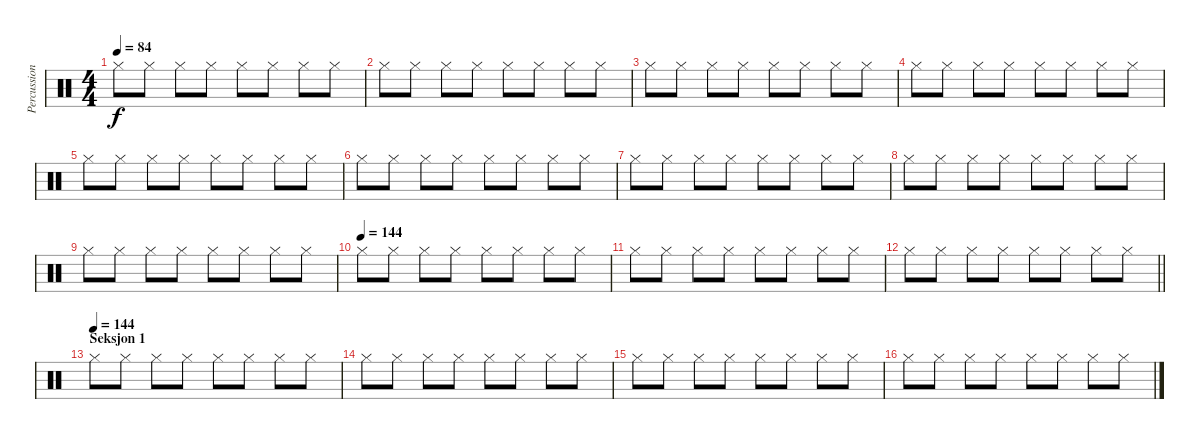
\track ("Percussion" "Percussion") {instrument percussion}
\staff {score}
\articulation defaults
\ts (4 4)
\tempo 84
\clef neutral
\ks c "Hi-Hat (closed)".8{dy f} "Hi-Hat (closed)".8 "Hi-Hat (closed)".8 "Hi-Hat (closed)".8 "Hi-Hat (closed)".8 "Hi-Hat (closed)".8 "Hi-Hat (closed)".8 "Hi-Hat (closed)".8
|
"Hi-Hat (closed)".8 "Hi-Hat (closed)".8 "Hi-Hat (closed)".8 "Hi-Hat (closed)".8 "Hi-Hat (closed)".8 "Hi-Hat (closed)".8 "Hi-Hat (closed)".8 "Hi-Hat (closed)".8 |
"Hi-Hat (closed)".8 "Hi-Hat (closed)".8 "Hi-Hat (closed)".8 "Hi-Hat (closed)".8 "Hi-Hat (closed)".8 "Hi-Hat (closed)".8 "Hi-Hat (closed)".8 "Hi-Hat (closed)".8 |
"Hi-Hat (closed)".8 "Hi-Hat (closed)".8 "Hi-Hat (closed)".8 "Hi-Hat (closed)".8 "Hi-Hat (closed)".8 "Hi-Hat (closed)".8 "Hi-Hat (closed)".8 "Hi-Hat (closed)".8 |
"Hi-Hat (closed)".8 "Hi-Hat (closed)".8 "Hi-Hat (closed)".8 "Hi-Hat (closed)".8 "Hi-Hat (closed)".8 "Hi-Hat (closed)".8 "Hi-Hat (closed)".8 "Hi-Hat (closed)".8 |
"Hi-Hat (closed)".8 "Hi-Hat (closed)".8 "Hi-Hat (closed)".8 "Hi-Hat (closed)".8 "Hi-Hat (closed)".8 "Hi-Hat (closed)".8 "Hi-Hat (closed)".8 "Hi-Hat (closed)".8 |
"Hi-Hat (closed)".8 "Hi-Hat (closed)".8 "Hi-Hat (closed)".8 "Hi-Hat (closed)".8 "Hi-Hat (closed)".8 "Hi-Hat (closed)".8 "Hi-Hat (closed)".8 "Hi-Hat (closed)".8 |
"Hi-Hat (closed)".8 "Hi-Hat (closed)".8 "Hi-Hat (closed)".8 "Hi-Hat (closed)".8 "Hi-Hat (closed)".8 "Hi-Hat (closed)".8 "Hi-Hat (closed)".8 "Hi-Hat (closed)".8 |
"Hi-Hat (closed)".8 "Hi-Hat (closed)".8 "Hi-Hat (closed)".8 "Hi-Hat (closed)".8 "Hi-Hat (closed)".8 "Hi-Hat (closed)".8 "Hi-Hat (closed)".8 "Hi-Hat (closed)".8 |
\tempo (144)
"Hi-Hat (closed)".8 "Hi-Hat (closed)".8 "Hi-Hat (closed)".8 "Hi-Hat (closed)".8 "Hi-Hat (closed)".8 "Hi-Hat (closed)".8 "Hi-Hat (closed)".8 "Hi-Hat (closed)".8 |
"Hi-Hat (closed)".8 "Hi-Hat (closed)".8 "Hi-Hat (closed)".8 "Hi-Hat (closed)".8 "Hi-Hat (closed)".8 "Hi-Hat (closed)".8 "Hi-Hat (closed)".8 "Hi-Hat (closed)".8 |
\barLineRight lightlight "Hi-Hat (closed)".8 "Hi-Hat (closed)".8 "Hi-Hat (closed)".8 "Hi-Hat (closed)".8 "Hi-Hat (closed)".8 "Hi-Hat (closed)".8 "Hi-Hat (closed)".8 "Hi-Hat (closed)".8
|
\section ("" "Seksjon 1")
\tempo (144)
"Hi-Hat (closed)".8 "Hi-Hat (closed)".8 "Hi-Hat (closed)".8 "Hi-Hat (closed)".8 "Hi-Hat (closed)".8 "Hi-Hat (closed)".8 "Hi-Hat (closed)".8 "Hi-Hat (closed)".8 |
"Hi-Hat (closed)".8 "Hi-Hat (closed)".8 "Hi-Hat (closed)".8 "Hi-Hat (closed)".8 "Hi-Hat (closed)".8 "Hi-Hat (closed)".8 "Hi-Hat (closed)".8 "Hi-Hat (closed)".8 |
"Hi-Hat (closed)".8 "Hi-Hat (closed)".8 "Hi-Hat (closed)".8 "Hi-Hat (closed)".8 "Hi-Hat (closed)".8 "Hi-Hat (closed)".8 "Hi-Hat (closed)".8 "Hi-Hat (closed)".8 |
"Hi-Hat (closed)".8 "Hi-Hat (closed)".8 "Hi-Hat (closed)".8 "Hi-Hat (closed)".8 "Hi-Hat (closed)".8 "Hi-Hat (closed)".8 "Hi-Hat (closed)".8 "Hi-Hat (closed)".8
